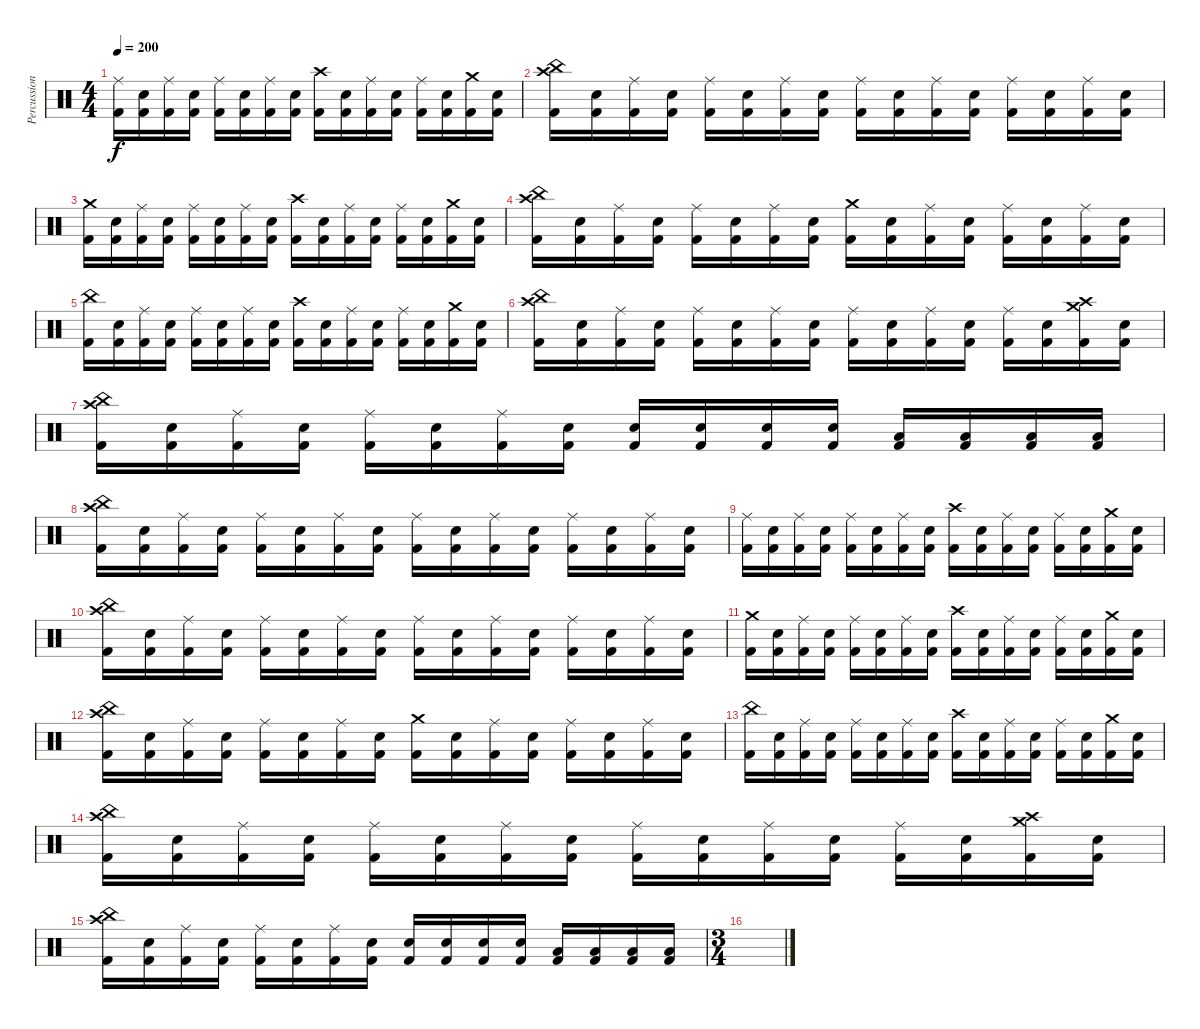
\track ("Percussion" "Percussion") {instrument percussion}
\staff
\articulation defaults
\ts (4 4)
\tempo 200
\clef neutral
\ks c
("Ride (middle)" "Kick (hit) 2").16{dy f} ("Electric Snare (hit)" "Kick (hit) 2").16 ("Ride (middle)" "Kick (hit) 2").16 ("Electric Snare (hit)" "Kick (hit) 2").16 ("Ride (middle)" "Kick (hit) 2").16 ("Electric Snare (hit)" "Kick (hit) 2").16 ("Ride (middle)" "Kick (hit) 2").16 ("Electric Snare (hit)" "Kick (hit) 2").16 ("Crash high (hit)" "Kick (hit) 2").16 ("Electric Snare (hit)" "Kick (hit) 2").16 ("Ride (middle)" "Kick (hit) 2").16 ("Electric Snare (hit)" "Kick (hit) 2").16 ("Ride (middle)" "Kick (hit) 2").16 ("Electric Snare (hit)" "Kick (hit) 2").16 ("Crash medium (hit)" "Kick (hit) 2").16 ("Electric Snare (hit)" "Kick (hit) 2").16 |
("China (hit)" "Crash high (hit)" "Kick (hit) 2").16 ("Electric Snare (hit)" "Kick (hit) 2").16 ("Ride (middle)" "Kick (hit) 2").16 ("Electric Snare (hit)" "Kick (hit) 2").16 ("Ride (middle)" "Kick (hit) 2").16 ("Electric Snare (hit)" "Kick (hit) 2").16 ("Ride (middle)" "Kick (hit) 2").16 ("Electric Snare (hit)" "Kick (hit) 2").16 ("Ride (middle)" "Kick (hit) 2").16 ("Electric Snare (hit)" "Kick (hit) 2").16 ("Ride (middle)" "Kick (hit) 2").16 ("Electric Snare (hit)" "Kick (hit) 2").16 ("Ride (middle)" "Kick (hit) 2").16 ("Electric Snare (hit)" "Kick (hit) 2").16 ("Ride (middle)" "Kick (hit) 2").16 ("Electric Snare (hit)" "Kick (hit) 2").16 |
("Crash medium (hit)" "Kick (hit) 2").16 ("Electric Snare (hit)" "Kick (hit) 2").16 ("Ride (middle)" "Kick (hit) 2").16 ("Electric Snare (hit)" "Kick (hit) 2").16 ("Ride (middle)" "Kick (hit) 2").16 ("Electric Snare (hit)" "Kick (hit) 2").16 ("Ride (middle)" "Kick (hit) 2").16 ("Electric Snare (hit)" "Kick (hit) 2").16 ("Crash high (hit)" "Kick (hit) 2").16 ("Electric Snare (hit)" "Kick (hit) 2").16 ("Ride (middle)" "Kick (hit) 2").16 ("Electric Snare (hit)" "Kick (hit) 2").16 ("Ride (middle)" "Kick (hit) 2").16 ("Electric Snare (hit)" "Kick (hit) 2").16 ("Crash medium (hit)" "Kick (hit) 2").16 ("Electric Snare (hit)" "Kick (hit) 2").16 |
("China (hit)" "Crash high (hit)" "Kick (hit) 2").16 ("Electric Snare (hit)" "Kick (hit) 2").16 ("Ride (middle)" "Kick (hit) 2").16 ("Electric Snare (hit)" "Kick (hit) 2").16 ("Ride (middle)" "Kick (hit) 2").16 ("Electric Snare (hit)" "Kick (hit) 2").16 ("Ride (middle)" "Kick (hit) 2").16 ("Electric Snare (hit)" "Kick (hit) 2").16 ("Crash medium (hit)" "Kick (hit) 2").16 ("Electric Snare (hit)" "Kick (hit) 2").16 ("Ride (middle)" "Kick (hit) 2").16 ("Electric Snare (hit)" "Kick (hit) 2").16 ("Ride (middle)" "Kick (hit) 2").16 ("Electric Snare (hit)" "Kick (hit) 2").16 ("Ride (middle)" "Kick (hit) 2").16 ("Electric Snare (hit)" "Kick (hit) 2").16 |
("China (hit)" "Kick (hit) 2").16 ("Electric Snare (hit)" "Kick (hit) 2").16 ("Ride (middle)" "Kick (hit) 2").16 ("Electric Snare (hit)" "Kick (hit) 2").16 ("Ride (middle)" "Kick (hit) 2").16 ("Electric Snare (hit)" "Kick (hit) 2").16 ("Ride (middle)" "Kick (hit) 2").16 ("Electric Snare (hit)" "Kick (hit) 2").16 ("Crash high (hit)" "Kick (hit) 2").16 ("Electric Snare (hit)" "Kick (hit) 2").16 ("Ride (middle)" "Kick (hit) 2").16 ("Electric Snare (hit)" "Kick (hit) 2").16 ("Ride (middle)" "Kick (hit) 2").16 ("Electric Snare (hit)" "Kick (hit) 2").16 ("Crash medium (hit)" "Kick (hit) 2").16 ("Electric Snare (hit)" "Kick (hit) 2").16 |
("China (hit)" "Crash high (hit)" "Kick (hit) 2").16 ("Electric Snare (hit)" "Kick (hit) 2").16 ("Ride (middle)" "Kick (hit) 2").16 ("Electric Snare (hit)" "Kick (hit) 2").16 ("Ride (middle)" "Kick (hit) 2").16 ("Electric Snare (hit)" "Kick (hit) 2").16 ("Ride (middle)" "Kick (hit) 2").16 ("Electric Snare (hit)" "Kick (hit) 2").16 ("Ride (middle)" "Kick (hit) 2").16 ("Electric Snare (hit)" "Kick (hit) 2").16 ("Ride (middle)" "Kick (hit) 2").16 ("Electric Snare (hit)" "Kick (hit) 2").16 ("Ride (middle)" "Kick (hit) 2").16 ("Electric Snare (hit)" "Kick (hit) 2").16 ("Crash medium (hit)" "Crash high (hit)" "Kick (hit) 2").16 ("Electric Snare (hit)" "Kick (hit) 2").16 |
("China (hit)" "Crash high (hit)" "Kick (hit) 2").16 ("Electric Snare (hit)" "Kick (hit) 2").16 ("Ride (middle)" "Kick (hit) 2").16 ("Electric Snare (hit)" "Kick (hit) 2").16 ("Ride (middle)" "Kick (hit) 2").16 ("Electric Snare (hit)" "Kick (hit) 2").16 ("Ride (middle)" "Kick (hit) 2").16 ("Electric Snare (hit)" "Kick (hit) 2").16 ("Electric Snare (hit)" "Kick (hit) 2").16 ("Electric Snare (hit)" "Kick (hit) 2").16 ("Electric Snare (hit)" "Kick (hit) 2").16 ("Electric Snare (hit)" "Kick (hit) 2").16 ("Low Tom (hit)" "Kick (hit) 2").16 ("Low Tom (hit)" "Kick (hit) 2").16 ("Low Tom (hit)" "Kick (hit) 2").16 ("Low Tom (hit)" "Kick (hit) 2").16 |
("China (hit)" "Crash high (hit)" "Kick (hit) 2").16 ("Electric Snare (hit)" "Kick (hit) 2").16 ("Ride (middle)" "Kick (hit) 2").16 ("Electric Snare (hit)" "Kick (hit) 2").16 ("Ride (middle)" "Kick (hit) 2").16 ("Electric Snare (hit)" "Kick (hit) 2").16 ("Ride (middle)" "Kick (hit) 2").16 ("Electric Snare (hit)" "Kick (hit) 2").16 ("Ride (middle)" "Kick (hit) 2").16 ("Electric Snare (hit)" "Kick (hit) 2").16 ("Ride (middle)" "Kick (hit) 2").16 ("Electric Snare (hit)" "Kick (hit) 2").16 ("Ride (middle)" "Kick (hit) 2").16 ("Electric Snare (hit)" "Kick (hit) 2").16 ("Ride (middle)" "Kick (hit) 2").16 ("Electric Snare (hit)" "Kick (hit) 2").16 |
("Ride (middle)" "Kick (hit) 2").16 ("Electric Snare (hit)" "Kick (hit) 2").16 ("Ride (middle)" "Kick (hit) 2").16 ("Electric Snare (hit)" "Kick (hit) 2").16 ("Ride (middle)" "Kick (hit) 2").16 ("Electric Snare (hit)" "Kick (hit) 2").16 ("Ride (middle)" "Kick (hit) 2").16 ("Electric Snare (hit)" "Kick (hit) 2").16 ("Crash high (hit)" "Kick (hit) 2").16 ("Electric Snare (hit)" "Kick (hit) 2").16 ("Ride (middle)" "Kick (hit) 2").16 ("Electric Snare (hit)" "Kick (hit) 2").16 ("Ride (middle)" "Kick (hit) 2").16 ("Electric Snare (hit)" "Kick (hit) 2").16 ("Crash medium (hit)" "Kick (hit) 2").16 ("Electric Snare (hit)" "Kick (hit) 2").16 |
("China (hit)" "Crash high (hit)" "Kick (hit) 2").16 ("Electric Snare (hit)" "Kick (hit) 2").16 ("Ride (middle)" "Kick (hit) 2").16 ("Electric Snare (hit)" "Kick (hit) 2").16 ("Ride (middle)" "Kick (hit) 2").16 ("Electric Snare (hit)" "Kick (hit) 2").16 ("Ride (middle)" "Kick (hit) 2").16 ("Electric Snare (hit)" "Kick (hit) 2").16 ("Ride (middle)" "Kick (hit) 2").16 ("Electric Snare (hit)" "Kick (hit) 2").16 ("Ride (middle)" "Kick (hit) 2").16 ("Electric Snare (hit)" "Kick (hit) 2").16 ("Ride (middle)" "Kick (hit) 2").16 ("Electric Snare (hit)" "Kick (hit) 2").16 ("Ride (middle)" "Kick (hit) 2").16 ("Electric Snare (hit)" "Kick (hit) 2").16 |
("Crash medium (hit)" "Kick (hit) 2").16 ("Electric Snare (hit)" "Kick (hit) 2").16 ("Ride (middle)" "Kick (hit) 2").16 ("Electric Snare (hit)" "Kick (hit) 2").16 ("Ride (middle)" "Kick (hit) 2").16 ("Electric Snare (hit)" "Kick (hit) 2").16 ("Ride (middle)" "Kick (hit) 2").16 ("Electric Snare (hit)" "Kick (hit) 2").16 ("Crash high (hit)" "Kick (hit) 2").16 ("Electric Snare (hit)" "Kick (hit) 2").16 ("Ride (middle)" "Kick (hit) 2").16 ("Electric Snare (hit)" "Kick (hit) 2").16 ("Ride (middle)" "Kick (hit) 2").16 ("Electric Snare (hit)" "Kick (hit) 2").16 ("Crash medium (hit)" "Kick (hit) 2").16 ("Electric Snare (hit)" "Kick (hit) 2").16 |
("China (hit)" "Crash high (hit)" "Kick (hit) 2").16 ("Electric Snare (hit)" "Kick (hit) 2").16 ("Ride (middle)" "Kick (hit) 2").16 ("Electric Snare (hit)" "Kick (hit) 2").16 ("Ride (middle)" "Kick (hit) 2").16 ("Electric Snare (hit)" "Kick (hit) 2").16 ("Ride (middle)" "Kick (hit) 2").16 ("Electric Snare (hit)" "Kick (hit) 2").16 ("Crash medium (hit)" "Kick (hit) 2").16 ("Electric Snare (hit)" "Kick (hit) 2").16 ("Ride (middle)" "Kick (hit) 2").16 ("Electric Snare (hit)" "Kick (hit) 2").16 ("Ride (middle)" "Kick (hit) 2").16 ("Electric Snare (hit)" "Kick (hit) 2").16 ("Ride (middle)" "Kick (hit) 2").16 ("Electric Snare (hit)" "Kick (hit) 2").16 |
("China (hit)" "Kick (hit) 2").16 ("Electric Snare (hit)" "Kick (hit) 2").16 ("Ride (middle)" "Kick (hit) 2").16 ("Electric Snare (hit)" "Kick (hit) 2").16 ("Ride (middle)" "Kick (hit) 2").16 ("Electric Snare (hit)" "Kick (hit) 2").16 ("Ride (middle)" "Kick (hit) 2").16 ("Electric Snare (hit)" "Kick (hit) 2").16 ("Crash high (hit)" "Kick (hit) 2").16 ("Electric Snare (hit)" "Kick (hit) 2").16 ("Ride (middle)" "Kick (hit) 2").16 ("Electric Snare (hit)" "Kick (hit) 2").16 ("Ride (middle)" "Kick (hit) 2").16 ("Electric Snare (hit)" "Kick (hit) 2").16 ("Crash medium (hit)" "Kick (hit) 2").16 ("Electric Snare (hit)" "Kick (hit) 2").16 |
("China (hit)" "Crash high (hit)" "Kick (hit) 2").16 ("Electric Snare (hit)" "Kick (hit) 2").16 ("Ride (middle)" "Kick (hit) 2").16 ("Electric Snare (hit)" "Kick (hit) 2").16 ("Ride (middle)" "Kick (hit) 2").16 ("Electric Snare (hit)" "Kick (hit) 2").16 ("Ride (middle)" "Kick (hit) 2").16 ("Electric Snare (hit)" "Kick (hit) 2").16 ("Ride (middle)" "Kick (hit) 2").16 ("Electric Snare (hit)" "Kick (hit) 2").16 ("Ride (middle)" "Kick (hit) 2").16 ("Electric Snare (hit)" "Kick (hit) 2").16 ("Ride (middle)" "Kick (hit) 2").16 ("Electric Snare (hit)" "Kick (hit) 2").16 ("Crash medium (hit)" "Crash high (hit)" "Kick (hit) 2").16 ("Electric Snare (hit)" "Kick (hit) 2").16 |
("China (hit)" "Crash high (hit)" "Kick (hit) 2").16 ("Electric Snare (hit)" "Kick (hit) 2").16 ("Ride (middle)" "Kick (hit) 2").16 ("Electric Snare (hit)" "Kick (hit) 2").16 ("Ride (middle)" "Kick (hit) 2").16 ("Electric Snare (hit)" "Kick (hit) 2").16 ("Ride (middle)" "Kick (hit) 2").16 ("Electric Snare (hit)" "Kick (hit) 2").16 ("Electric Snare (hit)" "Kick (hit) 2").16 ("Electric Snare (hit)" "Kick (hit) 2").16 ("Electric Snare (hit)" "Kick (hit) 2").16 ("Electric Snare (hit)" "Kick (hit) 2").16 ("Low Tom (hit)" "Kick (hit) 2").16 ("Low Tom (hit)" "Kick (hit) 2").16 ("Low Tom (hit)" "Kick (hit) 2").16 ("Low Tom (hit)" "Kick (hit) 2").16 |
\ts (3 4)
